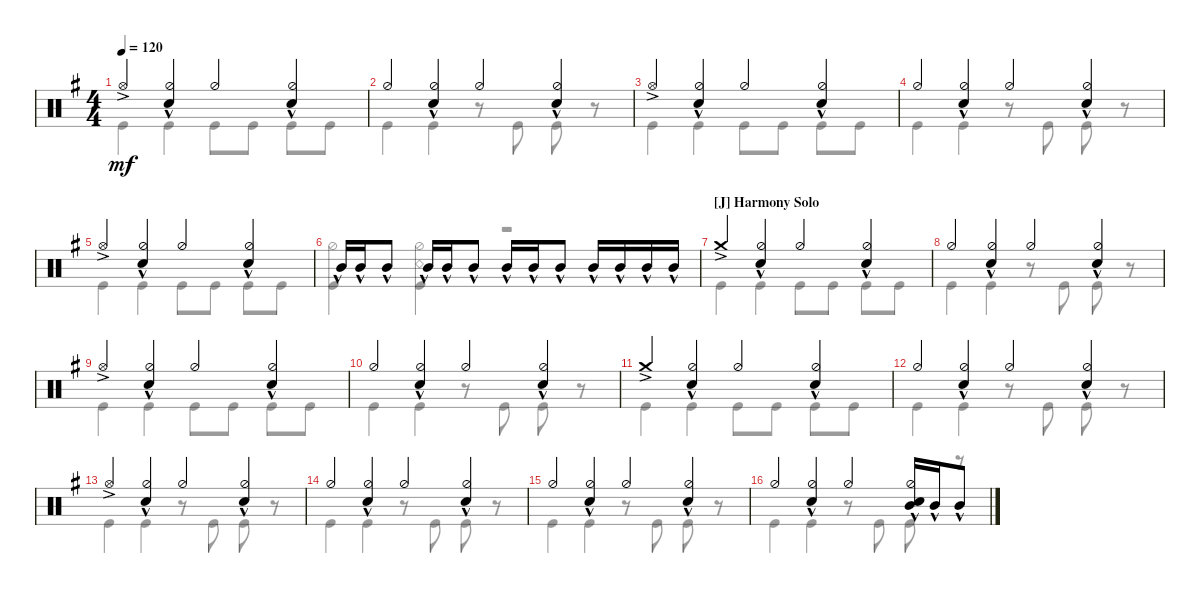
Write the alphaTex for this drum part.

\defaultSystemsLayout 4
\bracketExtendMode groupsimilarinstruments
\singleTrackTrackNamePolicy hidden
\multiTrackTrackNamePolicy hidden
\firstSystemTrackNameOrientation horizontal
\otherSystemsTrackNameOrientation horizontal
\track ("Maksim Udalov" "Drums") {instrument percussion}
\staff {score}
\articulation defaults
\voice
\ts (4 4)
\tempo 120
\clef neutral
\scale
1.02648
\ks g "Hi-Hat (open)"{ac}.4{dy mf}
("Hi-Hat (half)" "Snare (hit) 2"{hac}).4 "Hi-Hat (half)".4 ("Hi-Hat (half)" "Snare (hit) 2"{hac}).4 |
\scale
0.973518 "Hi-Hat (half)".4 ("Hi-Hat (half)" "Snare (hit) 2"{hac}).4 "Hi-Hat (half)".4 ("Hi-Hat (half)" "Snare (hit) 2"{hac}).4 |
\scale
1.02648 "Hi-Hat (open)"{ac}.4 ("Hi-Hat (half)" "Snare (hit) 2"{hac}).4 "Hi-Hat (half)".4 ("Hi-Hat (half)" "Snare (hit) 2"{hac}).4 |
\scale
0.973518 "Hi-Hat (half)".4 ("Hi-Hat (half)" "Snare (hit) 2"{hac}).4 "Hi-Hat (half)".4 ("Hi-Hat (half)" "Snare (hit) 2"{hac}).4 |
\scale
1.02648 "Hi-Hat (open)"{ac}.4 ("Hi-Hat (half)" "Snare (hit) 2"{hac}).4 "Hi-Hat (half)".4 ("Hi-Hat (half)" "Snare (hit) 2"{hac}).4 |
\scale
0.973518 "Mid Tom (hit)"{hac}.16 "Mid Tom (hit)"{hac}.16 "Mid Tom (hit)"{hac}.8 "Mid Tom (hit)"{hac}.16 "Mid Tom (hit)"{hac}.16 "Mid Tom (hit)"{hac}.8 "Mid Tom (hit)"{hac}.16 "Mid Tom (hit)"{hac}.16 "Mid Tom (hit)"{hac}.8 "Mid Tom (hit)"{hac}.16 "Mid Tom (hit)"{hac}.16 "Mid Tom (hit)"{hac}.16 "Mid Tom (hit)"{hac}.16 |
\section ("J" "Harmony Solo")
\scale
1.02648 "Crash medium (hit)"{ac}.4 ("Hi-Hat (half)" "Snare (hit) 2"{hac}).4 "Hi-Hat (half)".4 ("Hi-Hat (half)" "Snare (hit) 2"{hac}).4 |
\scale
0.973518 "Hi-Hat (half)".4 ("Hi-Hat (half)" "Snare (hit) 2"{hac}).4 "Hi-Hat (half)".4 ("Hi-Hat (half)" "Snare (hit) 2"{hac}).4 |
\scale
1.02648 "Hi-Hat (open)"{ac}.4 ("Hi-Hat (half)" "Snare (hit) 2"{hac}).4 "Hi-Hat (half)".4 ("Hi-Hat (half)" "Snare (hit) 2"{hac}).4 |
\scale
0.973518 "Hi-Hat (half)".4 ("Hi-Hat (half)" "Snare (hit) 2"{hac}).4 "Hi-Hat (half)".4 ("Hi-Hat (half)" "Snare (hit) 2"{hac}).4 |
\scale
1.02648 "Crash medium (hit)"{ac}.4 ("Hi-Hat (half)" "Snare (hit) 2"{hac}).4 "Hi-Hat (half)".4 ("Hi-Hat (half)" "Snare (hit) 2"{hac}).4 |
\scale
0.973518 "Hi-Hat (half)".4 ("Hi-Hat (half)" "Snare (hit) 2"{hac}).4 "Hi-Hat (half)".4 ("Hi-Hat (half)" "Snare (hit) 2"{hac}).4 |
\scale
1.02648 "Hi-Hat (open)"{ac}.4 ("Hi-Hat (half)" "Snare (hit) 2"{hac}).4 "Hi-Hat (half)".4 ("Hi-Hat (half)" "Snare (hit) 2"{hac}).4 |
\scale
0.973518 "Hi-Hat (half)".4 ("Hi-Hat (half)" "Snare (hit) 2"{hac}).4 "Hi-Hat (half)".4 ("Hi-Hat (half)" "Snare (hit) 2"{hac}).4 |
\scale
1.02648 "Hi-Hat (half)".4 ("Hi-Hat (half)" "Snare (hit) 2"{hac}).4 "Hi-Hat (half)".4 ("Hi-Hat (half)" "Snare (hit) 2"{hac}).4 |
\scale
0.973518 "Hi-Hat (half)".4 ("Hi-Hat (half)" "Snare (hit) 2"{hac}).4 "Hi-Hat (half)".4 ("Hi-Hat (half)" "Snare (hit) 2"{hac} "Mid Tom (hit)").16 "Mid Tom (hit)"{hac}.16 "Mid Tom (hit)"{hac}.8
\voice
\clef neutral
\ottava regular
\simile none
\scale
1.02648
\ks g "Kick (hit)".4{dy mf} "Kick (hit)".4 "Kick (hit)".8 "Kick (hit)".8 "Kick (hit)".8 "Kick (hit)".8
|
\scale
0.973518 "Kick (hit)".4 "Kick (hit)".4 r.8 "Kick (hit)".8 "Kick (hit)".8 r.8 |
\scale
1.02648 "Kick (hit)".4 "Kick (hit)".4 "Kick (hit)".8 "Kick (hit)".8 "Kick (hit)".8 "Kick (hit)".8 |
\scale
0.973518 "Kick (hit)".4 "Kick (hit)".4 r.8 "Kick (hit)".8 "Kick (hit)".8 r.8 |
\scale
1.02648 "Kick (hit)".4 "Kick (hit)".4 "Kick (hit)".8 "Kick (hit)".8 "Kick (hit)".8 "Kick (hit)".8 |
\scale
0.973518 ("Kick (hit)" "Hi-Hat (half)").4 ("Kick (hit)" "Hi-Hat (half)" "Snare (rim shot)").4 r.2 |
\scale
1.02648 "Kick (hit)".4 "Kick (hit)".4 "Kick (hit)".8 "Kick (hit)".8 "Kick (hit)".8 "Kick (hit)".8 |
\scale
0.973518 "Kick (hit)".4 "Kick (hit)".4 r.8 "Kick (hit)".8 "Kick (hit)".8 r.8 |
\scale
1.02648 "Kick (hit)".4 "Kick (hit)".4 "Kick (hit)".8 "Kick (hit)".8 "Kick (hit)".8 "Kick (hit)".8 |
\scale
0.973518 "Kick (hit)".4 "Kick (hit)".4 r.8 "Kick (hit)".8 "Kick (hit)".8 r.8 |
\scale
1.02648 "Kick (hit)".4 "Kick (hit)".4 "Kick (hit)".8 "Kick (hit)".8 "Kick (hit)".8 "Kick (hit)".8 |
\scale
0.973518 "Kick (hit)".4 "Kick (hit)".4 r.8 "Kick (hit)".8 "Kick (hit)".8 r.8 |
\scale
1.02648 "Kick (hit)".4 "Kick (hit)".4 r.8 "Kick (hit)".8 "Kick (hit)".8 r.8 |
\scale
0.973518 "Kick (hit)".4 "Kick (hit)".4 r.8 "Kick (hit)".8 "Kick (hit)".8 r.8 |
\scale
1.02648 "Kick (hit)".4 "Kick (hit)".4 r.8 "Kick (hit)".8 "Kick (hit)".8 r.8 |
\scale
0.973518 "Kick (hit)".4 "Kick (hit)".4 r.8 "Kick (hit)".8 "Kick (hit)".8 r.8
